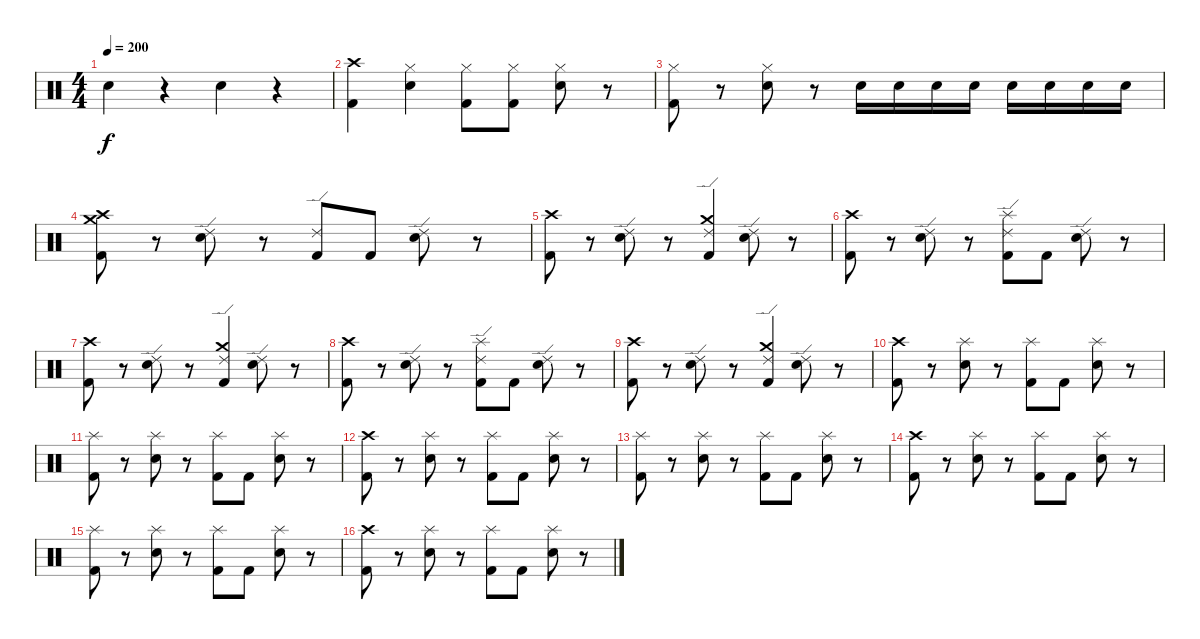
\track "" {instrument percussion}
\staff {score}
\articulation defaults
\ts (4 4)
\tempo 200
\clef neutral
\ks c "Electric Snare (hit)".4{dy f}
r.4 "Electric Snare (hit)".4 r.4 |
("Crash high (hit)" "Kick (hit) 2").4 ("Hi-Hat (closed)" "Electric Snare (hit)").4 ("Hi-Hat (closed)" "Kick (hit) 2").8 ("Hi-Hat (closed)" "Kick (hit) 2").8 ("Hi-Hat (closed)" "Electric Snare (hit)").8 r.8 |
("Hi-Hat (closed)" "Kick (hit) 2").8 r.8 ("Hi-Hat (closed)" "Electric Snare (hit)").8 r.8 "Electric Snare (hit)".16 "Electric Snare (hit)".16 "Electric Snare (hit)".16 "Electric Snare (hit)".16 "Electric Snare (hit)".16 "Electric Snare (hit)".16 "Electric Snare (hit)".16 "Electric Snare (hit)".16 |
("Crash medium (hit)" "Crash high (hit)" "Kick (hit) 2").8 r.8 ("Ride (edge) 2" "Electric Snare (hit)").8 r.8 ("Ride (edge) 2" "Kick (hit) 2").8 "Kick (hit) 2".8 ("Ride (edge) 2" "Electric Snare (hit)").8 r.8 |
("Crash high (hit)" "Kick (hit) 2").8 r.8 ("Ride (edge) 2" "Electric Snare (hit)").8 r.8 ("Crash medium (hit)" "Ride (edge) 2" "Kick (hit) 2").4 ("Ride (edge) 2" "Electric Snare (hit)").8 r.8 |
("Crash high (hit)" "Kick (hit) 2").8 r.8 ("Ride (edge) 2" "Electric Snare (hit)").8 r.8 ("Splash (hit)" "Ride (edge) 2" "Kick (hit) 2").8 "Kick (hit) 2".8 ("Ride (edge) 2" "Electric Snare (hit)").8 r.8 |
("Crash high (hit)" "Kick (hit) 2").8 r.8 ("Ride (edge) 2" "Electric Snare (hit)").8 r.8 ("Crash medium (hit)" "Ride (edge) 2" "Kick (hit) 2").4 ("Ride (edge) 2" "Electric Snare (hit)").8 r.8 |
("Crash high (hit)" "Kick (hit) 2").8 r.8 ("Ride (edge) 2" "Electric Snare (hit)").8 r.8 ("Splash (hit)" "Ride (edge) 2" "Kick (hit) 2").8 "Kick (hit) 2".8 ("Ride (edge) 2" "Electric Snare (hit)").8 r.8 |
("Crash high (hit)" "Kick (hit) 2").8 r.8 ("Ride (edge) 2" "Electric Snare (hit)").8 r.8 ("Crash medium (hit)" "Ride (edge) 2" "Kick (hit) 2").4 ("Ride (edge) 2" "Electric Snare (hit)").8 r.8 |
("Crash high (hit)" "Kick (hit) 2").8 r.8 ("Splash (hit)" "Electric Snare (hit)").8 r.8 ("Splash (hit)" "Kick (hit) 2").8 "Kick (hit) 2".8 ("Splash (hit)" "Electric Snare (hit)").8 r.8 |
("Splash (hit)" "Kick (hit) 2").8 r.8 ("Splash (hit)" "Electric Snare (hit)").8 r.8 ("Splash (hit)" "Kick (hit) 2").8 "Kick (hit) 2".8 ("Splash (hit)" "Electric Snare (hit)").8 r.8 |
("Crash high (hit)" "Kick (hit) 2").8 r.8 ("Splash (hit)" "Electric Snare (hit)").8 r.8 ("Splash (hit)" "Kick (hit) 2").8 "Kick (hit) 2".8 ("Splash (hit)" "Electric Snare (hit)").8 r.8 |
("Splash (hit)" "Kick (hit) 2").8 r.8 ("Splash (hit)" "Electric Snare (hit)").8 r.8 ("Splash (hit)" "Kick (hit) 2").8 "Kick (hit) 2".8 ("Splash (hit)" "Electric Snare (hit)").8 r.8 |
("Crash high (hit)" "Kick (hit) 2").8 r.8 ("Splash (hit)" "Electric Snare (hit)").8 r.8 ("Splash (hit)" "Kick (hit) 2").8 "Kick (hit) 2".8 ("Splash (hit)" "Electric Snare (hit)").8 r.8 |
("Splash (hit)" "Kick (hit) 2").8 r.8 ("Splash (hit)" "Electric Snare (hit)").8 r.8 ("Splash (hit)" "Kick (hit) 2").8 "Kick (hit) 2".8 ("Splash (hit)" "Electric Snare (hit)").8 r.8 |
("Crash high (hit)" "Kick (hit) 2").8 r.8 ("Splash (hit)" "Electric Snare (hit)").8 r.8 ("Splash (hit)" "Kick (hit) 2").8 "Kick (hit) 2".8 ("Splash (hit)" "Electric Snare (hit)").8 r.8
